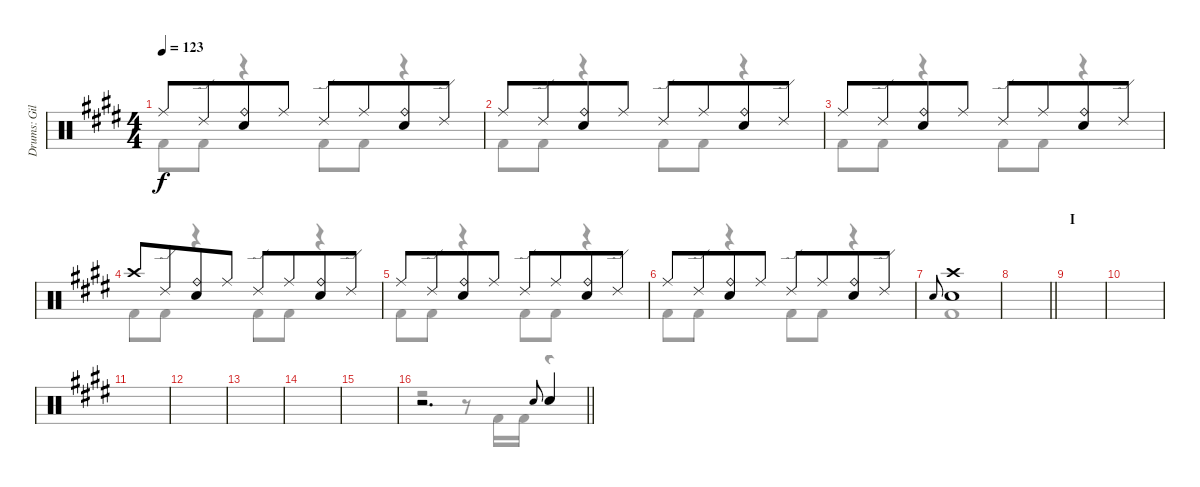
\track ("Drums: Gil" "Drums: Gil") {instrument percussion}
\staff {score}
\articulation defaults
\voice
\ts (4 4)
\tempo 123
\clef neutral
\ks e "Ride (middle)".8{dy f} "Ride (edge) 2".8{beam merge}
("Ride (bell)" "Snare (hit) 2").8 "Ride (middle)".8 "Ride (edge) 2".8 "Ride (middle)".8{beam merge} ("Ride (bell)" "Snare (hit) 2").8 "Ride (edge) 2".8 |
"Ride (middle)".8 "Ride (edge) 2".8{beam merge} ("Ride (bell)" "Snare (hit) 2").8 "Ride (middle)".8 "Ride (edge) 2".8 "Ride (middle)".8{beam merge} ("Ride (bell)" "Snare (hit) 2").8 "Ride (edge) 2".8 |
"Ride (middle)".8 "Ride (edge) 2".8{beam merge} ("Ride (bell)" "Snare (hit) 2").8 "Ride (middle)".8 "Ride (edge) 2".8 "Ride (middle)".8{beam merge} ("Ride (bell)" "Snare (hit) 2").8 "Ride (edge) 2".8 |
"Crash high (hit)".8 "Ride (edge) 2".8{beam merge} ("Ride (bell)" "Snare (hit) 2").8 "Ride (middle)".8 "Ride (edge) 2".8 "Ride (middle)".8{beam merge} ("Ride (bell)" "Snare (hit) 2").8 "Ride (edge) 2".8 |
"Ride (middle)".8 "Ride (edge) 2".8{beam merge} ("Ride (bell)" "Snare (hit) 2").8 "Ride (middle)".8 "Ride (edge) 2".8 "Ride (middle)".8{beam merge} ("Ride (bell)" "Snare (hit) 2").8 "Ride (edge) 2".8 |
"Ride (middle)".8 "Ride (edge) 2".8{beam merge} ("Ride (bell)" "Snare (hit) 2").8 "Ride (middle)".8 "Ride (edge) 2".8 "Ride (middle)".8{beam merge} ("Ride (bell)" "Snare (hit) 2").8 "Ride (edge) 2".8 |
"Electric Snare (hit)".8{gr onbeat} ("Crash high (hit)" "Snare (hit) 2").1 |
\barLineRight lightlight
|
\section ("" "I")
|
|
|
|
|
|
|
\barLineRight lightlight
r.2{d} "Electric Snare (hit)".8{gr onbeat} "Snare (hit) 2".4
\voice
\clef neutral
\ottava regular
\simile none
\ks e "Kick (hit) 2".8{dy f} "Kick (hit) 2".8
r.4 "Kick (hit) 2".8 "Kick (hit) 2".8 r.4 |
"Kick (hit) 2".8 "Kick (hit) 2".8 r.4 "Kick (hit) 2".8 "Kick (hit) 2".8 r.4 |
"Kick (hit) 2".8 "Kick (hit) 2".8 r.4 "Kick (hit) 2".8 "Kick (hit) 2".8 r.4 |
"Kick (hit) 2".8 "Kick (hit) 2".8 r.4 "Kick (hit) 2".8 "Kick (hit) 2".8 r.4 |
"Kick (hit) 2".8 "Kick (hit) 2".8 r.4 "Kick (hit) 2".8 "Kick (hit) 2".8 r.4 |
"Kick (hit) 2".8 "Kick (hit) 2".8 r.4 "Kick (hit) 2".8 "Kick (hit) 2".8 r.4 |
"Kick (hit) 2".1 |
\barLineRight lightlight
|
|
|
|
|
|
|
|
\barLineRight lightlight
r.2 r.8 "Kick (hit) 2".16 "Kick (hit) 2".16 r.4
